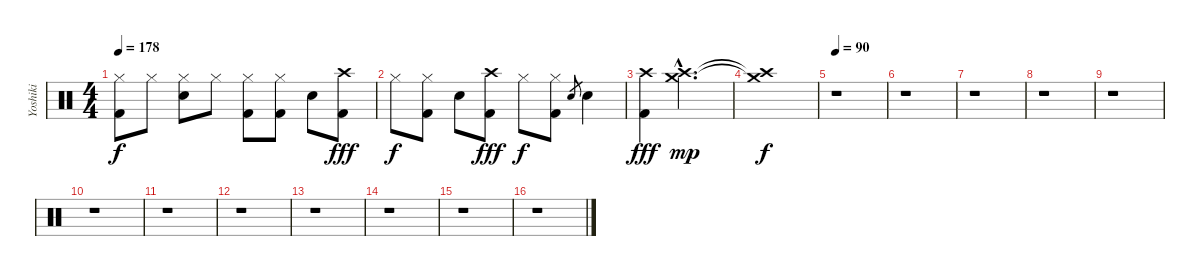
\track ("Yoshiki" "Yoshiki") {instrument percussion}
\staff {score}
\articulation defaults
\ts (4 4)
\tempo 178
\clef neutral
\ks c
("Hi-Hat (closed)" "Kick (hit) 2").8{dy f} "Hi-Hat (closed)".8 ("Hi-Hat (closed)" "Snare (hit) 2").8 "Hi-Hat (closed)".8 ("Hi-Hat (closed)" "Kick (hit) 2").8 ("Hi-Hat (closed)" "Kick (hit) 2").8 "Snare (hit) 2".8 ("Crash high (hit)" "Kick (hit) 2").8{dy fff} |
"Hi-Hat (closed)".8{dy f} ("Hi-Hat (closed)" "Kick (hit) 2").8 "Snare (hit) 2".8 ("Crash high (hit)" "Kick (hit) 2").8{dy fff} "Hi-Hat (closed)".8{dy f} ("Hi-Hat (closed)" "Kick (hit) 2").8 "Snare (hit) 2".8{gr} "Snare (hit) 2".4 |
("Crash high (hit)" "Kick (hit) 2").4{dy fff} ("Crash high (hit)"{hac} "Crash medium (hit)"{hac}).2{d dy mp} |
("Crash high (hit)"{t} "Crash medium (hit)"{t}).1{dy f} |
\tempo 90
r.1 |
r.1 |
r.1 |
r.1 |
r.1 |
r.1 |
r.1 |
r.1 |
r.1 |
r.1 |
r.1 |
r.1
